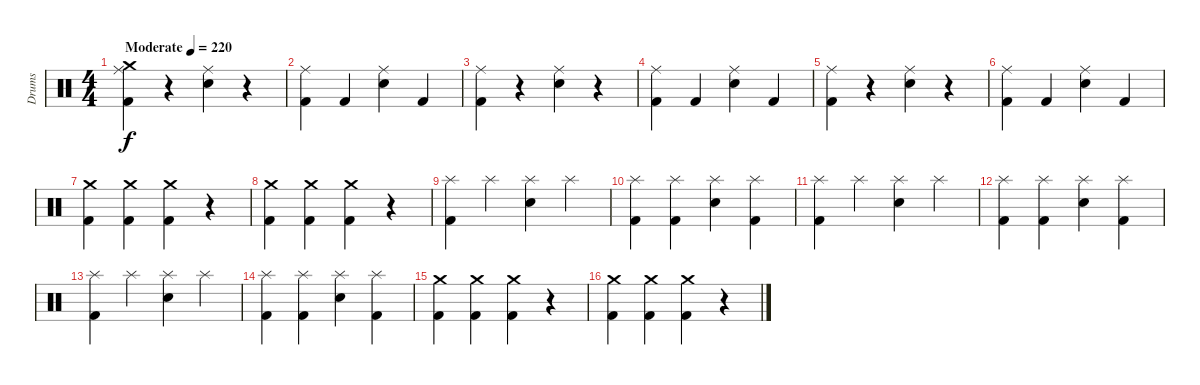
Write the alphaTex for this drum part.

\track ("Drums" "Drums") {instrument percussion}
\staff {score}
\articulation defaults
\ts (4 4)
\tempo (220 "Moderate")
\clef neutral
\ks c
("Crash medium (hit)" "Ride (middle)" "Kick (hit) 2").4{dy f} r.4 ("Ride (middle)" "Electric Snare (hit)").4 r.4 |
("Ride (middle)" "Kick (hit) 2").4 "Kick (hit) 2".4 ("Ride (middle)" "Electric Snare (hit)").4 "Kick (hit) 2".4 |
("Ride (middle)" "Kick (hit) 2").4 r.4 ("Ride (middle)" "Electric Snare (hit)").4 r.4 |
("Ride (middle)" "Kick (hit) 2").4 "Kick (hit) 2".4 ("Ride (middle)" "Electric Snare (hit)").4 "Kick (hit) 2".4 |
("Ride (middle)" "Kick (hit) 2").4 r.4 ("Ride (middle)" "Electric Snare (hit)").4 r.4 |
("Ride (middle)" "Kick (hit) 2").4 "Kick (hit) 2".4 ("Ride (middle)" "Electric Snare (hit)").4 "Kick (hit) 2".4 |
("Crash medium (hit)" "Kick (hit) 2").4 ("Crash medium (hit)" "Kick (hit) 2").4 ("Crash medium (hit)" "Kick (hit) 2").4 r.4 |
("Crash medium (hit)" "Kick (hit) 2").4 ("Crash medium (hit)" "Kick (hit) 2").4 ("Crash medium (hit)" "Kick (hit) 2").4 r.4 |
("Splash (hit)" "Kick (hit) 2").4 "Splash (hit)".4 ("Splash (hit)" "Electric Snare (hit)").4 "Splash (hit)".4 |
("Splash (hit)" "Kick (hit) 2").4 ("Splash (hit)" "Kick (hit) 2").4 ("Splash (hit)" "Electric Snare (hit)").4 ("Splash (hit)" "Kick (hit) 2").4 |
("Splash (hit)" "Kick (hit) 2").4 "Splash (hit)".4 ("Splash (hit)" "Electric Snare (hit)").4 "Splash (hit)".4 |
("Splash (hit)" "Kick (hit) 2").4 ("Splash (hit)" "Kick (hit) 2").4 ("Splash (hit)" "Electric Snare (hit)").4 ("Splash (hit)" "Kick (hit) 2").4 |
("Splash (hit)" "Kick (hit) 2").4 "Splash (hit)".4 ("Splash (hit)" "Electric Snare (hit)").4 "Splash (hit)".4 |
("Splash (hit)" "Kick (hit) 2").4 ("Splash (hit)" "Kick (hit) 2").4 ("Splash (hit)" "Electric Snare (hit)").4 ("Splash (hit)" "Kick (hit) 2").4 |
("Crash medium (hit)" "Kick (hit) 2").4 ("Crash medium (hit)" "Kick (hit) 2").4 ("Crash medium (hit)" "Kick (hit) 2").4 r.4 |
("Crash medium (hit)" "Kick (hit) 2").4 ("Crash medium (hit)" "Kick (hit) 2").4 ("Crash medium (hit)" "Kick (hit) 2").4 r.4
